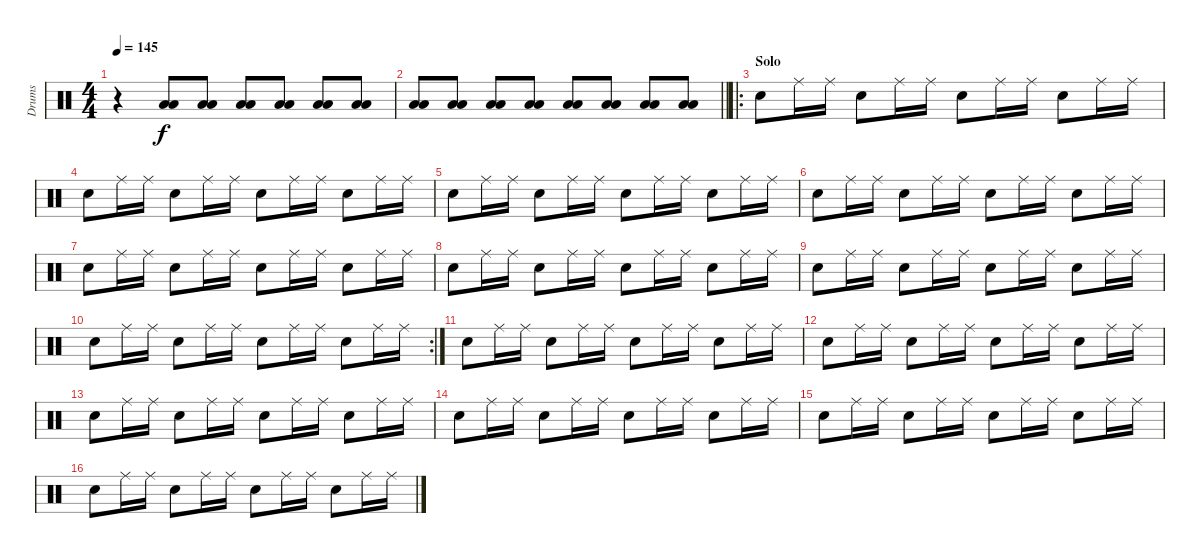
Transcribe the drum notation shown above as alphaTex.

\track ("Drums" "Drums") {instrument percussion}
\staff {score}
\articulation defaults
\ts (4 4)
\tempo 145
\clef neutral
\ks c
r.4{dy f} ("Low Tom (hit)" "Low Tom (hit)").8 ("Low Tom (hit)" "Low Tom (hit)").8 ("Low Tom (hit)" "Low Tom (hit)").8 ("Low Tom (hit)" "Low Tom (hit)").8 ("Low Tom (hit)" "Low Tom (hit)").8 ("Low Tom (hit)" "Low Tom (hit)").8 |
\barLineRight lightlight
("Low Tom (hit)" "Low Tom (hit)").8 ("Low Tom (hit)" "Low Tom (hit)").8 ("Low Tom (hit)" "Low Tom (hit)").8 ("Low Tom (hit)" "Low Tom (hit)").8 ("Low Tom (hit)" "Low Tom (hit)").8 ("Low Tom (hit)" "Low Tom (hit)").8 ("Low Tom (hit)" "Low Tom (hit)").8 ("Low Tom (hit)" "Low Tom (hit)").8 |
\ro
\section ("" "Solo")
"Electric Snare (hit)".8 "Ride (middle)".16 "Ride (middle)".16 "Electric Snare (hit)".8 "Ride (middle)".16 "Ride (middle)".16 "Electric Snare (hit)".8 "Ride (middle)".16 "Ride (middle)".16 "Electric Snare (hit)".8 "Ride (middle)".16 "Ride (middle)".16 |
"Electric Snare (hit)".8 "Ride (middle)".16 "Ride (middle)".16 "Electric Snare (hit)".8 "Ride (middle)".16 "Ride (middle)".16 "Electric Snare (hit)".8 "Ride (middle)".16 "Ride (middle)".16 "Electric Snare (hit)".8 "Ride (middle)".16 "Ride (middle)".16 |
"Electric Snare (hit)".8 "Ride (middle)".16 "Ride (middle)".16 "Electric Snare (hit)".8 "Ride (middle)".16 "Ride (middle)".16 "Electric Snare (hit)".8 "Ride (middle)".16 "Ride (middle)".16 "Electric Snare (hit)".8 "Ride (middle)".16 "Ride (middle)".16 |
"Electric Snare (hit)".8 "Ride (middle)".16 "Ride (middle)".16 "Electric Snare (hit)".8 "Ride (middle)".16 "Ride (middle)".16 "Electric Snare (hit)".8 "Ride (middle)".16 "Ride (middle)".16 "Electric Snare (hit)".8 "Ride (middle)".16 "Ride (middle)".16 |
"Electric Snare (hit)".8 "Ride (middle)".16 "Ride (middle)".16 "Electric Snare (hit)".8 "Ride (middle)".16 "Ride (middle)".16 "Electric Snare (hit)".8 "Ride (middle)".16 "Ride (middle)".16 "Electric Snare (hit)".8 "Ride (middle)".16 "Ride (middle)".16 |
"Electric Snare (hit)".8 "Ride (middle)".16 "Ride (middle)".16 "Electric Snare (hit)".8 "Ride (middle)".16 "Ride (middle)".16 "Electric Snare (hit)".8 "Ride (middle)".16 "Ride (middle)".16 "Electric Snare (hit)".8 "Ride (middle)".16 "Ride (middle)".16 |
"Electric Snare (hit)".8 "Ride (middle)".16 "Ride (middle)".16 "Electric Snare (hit)".8 "Ride (middle)".16 "Ride (middle)".16 "Electric Snare (hit)".8 "Ride (middle)".16 "Ride (middle)".16 "Electric Snare (hit)".8 "Ride (middle)".16 "Ride (middle)".16 |
\rc 2 "Electric Snare (hit)".8 "Ride (middle)".16 "Ride (middle)".16 "Electric Snare (hit)".8 "Ride (middle)".16 "Ride (middle)".16 "Electric Snare (hit)".8 "Ride (middle)".16 "Ride (middle)".16 "Electric Snare (hit)".8 "Ride (middle)".16 "Ride (middle)".16
|
"Electric Snare (hit)".8 "Ride (middle)".16 "Ride (middle)".16 "Electric Snare (hit)".8 "Ride (middle)".16 "Ride (middle)".16 "Electric Snare (hit)".8 "Ride (middle)".16 "Ride (middle)".16 "Electric Snare (hit)".8 "Ride (middle)".16 "Ride (middle)".16 |
"Electric Snare (hit)".8 "Ride (middle)".16 "Ride (middle)".16 "Electric Snare (hit)".8 "Ride (middle)".16 "Ride (middle)".16 "Electric Snare (hit)".8 "Ride (middle)".16 "Ride (middle)".16 "Electric Snare (hit)".8 "Ride (middle)".16 "Ride (middle)".16 |
"Electric Snare (hit)".8 "Ride (middle)".16 "Ride (middle)".16 "Electric Snare (hit)".8 "Ride (middle)".16 "Ride (middle)".16 "Electric Snare (hit)".8 "Ride (middle)".16 "Ride (middle)".16 "Electric Snare (hit)".8 "Ride (middle)".16 "Ride (middle)".16 |
"Electric Snare (hit)".8 "Ride (middle)".16 "Ride (middle)".16 "Electric Snare (hit)".8 "Ride (middle)".16 "Ride (middle)".16 "Electric Snare (hit)".8 "Ride (middle)".16 "Ride (middle)".16 "Electric Snare (hit)".8 "Ride (middle)".16 "Ride (middle)".16 |
"Electric Snare (hit)".8 "Ride (middle)".16 "Ride (middle)".16 "Electric Snare (hit)".8 "Ride (middle)".16 "Ride (middle)".16 "Electric Snare (hit)".8 "Ride (middle)".16 "Ride (middle)".16 "Electric Snare (hit)".8 "Ride (middle)".16 "Ride (middle)".16 |
"Electric Snare (hit)".8 "Ride (middle)".16 "Ride (middle)".16 "Electric Snare (hit)".8 "Ride (middle)".16 "Ride (middle)".16 "Electric Snare (hit)".8 "Ride (middle)".16 "Ride (middle)".16 "Electric Snare (hit)".8 "Ride (middle)".16 "Ride (middle)".16
